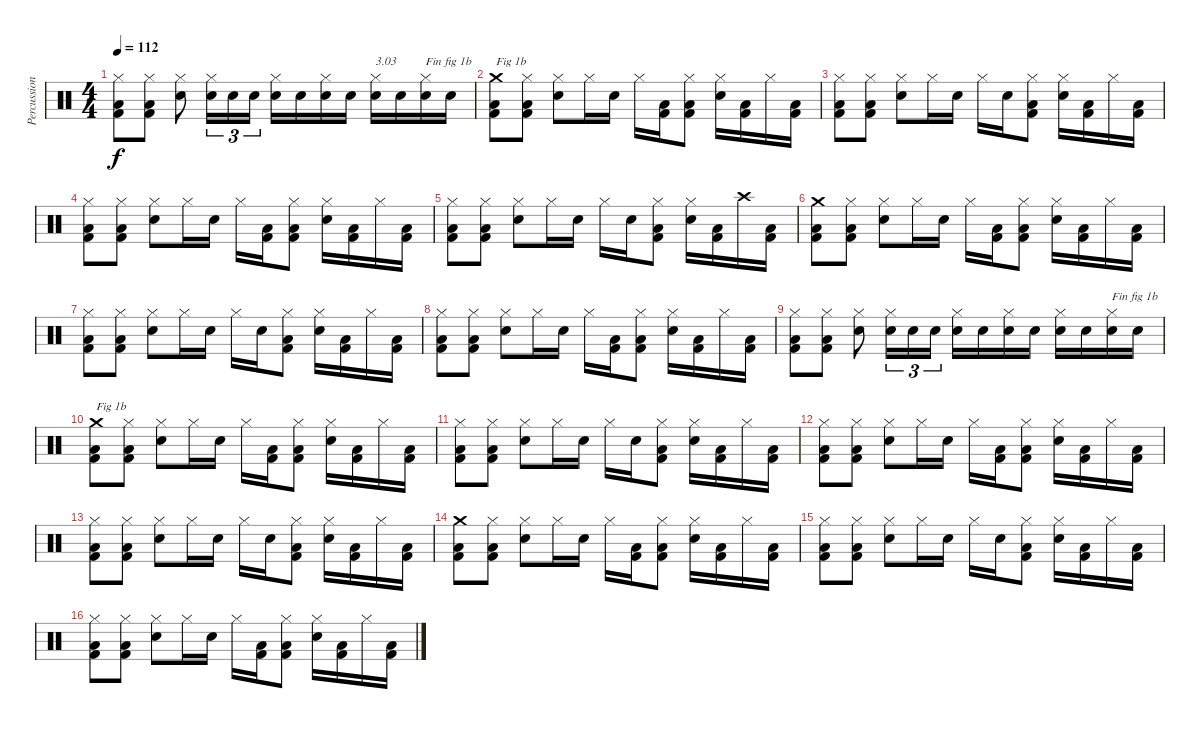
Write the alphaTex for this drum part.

\track ("Percussions" "Percussion") {instrument percussion}
\staff {score}
\articulation defaults
\ts (4 4)
\tempo 112
\clef neutral
\ks c
("Kick (hit) 2" "Low Floor Tom (hit)" "Hi-Hat (closed)").8{dy f} ("Kick (hit) 2" "Low Floor Tom (hit)" "Hi-Hat (closed)").8 ("Snare (hit) 2" "Hi-Hat (closed)").8 ("Snare (hit) 2" "Hi-Hat (closed)").16{tu (3 2)} "Snare (hit) 2".16{tu (3 2)} "Snare (hit) 2".16{tu (3 2)} ("Snare (hit) 2" "Hi-Hat (closed)").16 "Snare (hit) 2".16 ("Snare (hit) 2" "Hi-Hat (closed)").16 "Snare (hit) 2".16 ("Snare (hit) 2" "Hi-Hat (closed)").16{txt "3.03"} "Snare (hit) 2".16 ("Snare (hit) 2" "Hi-Hat (closed)").16{txt "Fin fig 1b"} "Snare (hit) 2".16 |
("Kick (hit) 2" "Low Floor Tom (hit)" "Crash medium (hit)").8{txt "Fig 1b"} ("Kick (hit) 2" "Low Floor Tom (hit)" "Hi-Hat (closed)").8 ("Snare (hit) 2" "Hi-Hat (closed)").8 "Hi-Hat (closed)".16 "Snare (hit) 2".16 "Hi-Hat (closed)".16 ("Kick (hit) 2" "Low Floor Tom (hit)").16 ("Kick (hit) 2" "Low Floor Tom (hit)" "Hi-Hat (closed)").8 ("Snare (hit) 2" "Hi-Hat (closed)").16 ("Kick (hit) 2" "Low Floor Tom (hit)").16 "Hi-Hat (closed)".16 ("Kick (hit) 2" "Low Floor Tom (hit)").16 |
("Kick (hit) 2" "Low Floor Tom (hit)" "Hi-Hat (closed)").8 ("Kick (hit) 2" "Low Floor Tom (hit)" "Hi-Hat (closed)").8 ("Snare (hit) 2" "Hi-Hat (closed)").8 "Hi-Hat (closed)".16 "Snare (hit) 2".16 "Hi-Hat (closed)".16 "Snare (hit) 2".16 ("Kick (hit) 2" "Low Floor Tom (hit)" "Hi-Hat (closed)").8 ("Snare (hit) 2" "Hi-Hat (closed)").16 ("Kick (hit) 2" "Low Floor Tom (hit)").16 "Hi-Hat (closed)".16 ("Kick (hit) 2" "Low Floor Tom (hit)").16 |
("Kick (hit) 2" "Low Floor Tom (hit)" "Hi-Hat (closed)").8 ("Kick (hit) 2" "Low Floor Tom (hit)" "Hi-Hat (closed)").8 ("Snare (hit) 2" "Hi-Hat (closed)").8 "Hi-Hat (closed)".16 "Snare (hit) 2".16 "Hi-Hat (closed)".16 ("Kick (hit) 2" "Low Floor Tom (hit)").16 ("Kick (hit) 2" "Low Floor Tom (hit)" "Hi-Hat (closed)").8 ("Snare (hit) 2" "Hi-Hat (closed)").16 ("Kick (hit) 2" "Low Floor Tom (hit)").16 "Hi-Hat (closed)".16 ("Kick (hit) 2" "Low Floor Tom (hit)").16 |
("Kick (hit) 2" "Low Floor Tom (hit)" "Hi-Hat (closed)").8 ("Kick (hit) 2" "Low Floor Tom (hit)" "Hi-Hat (closed)").8 ("Snare (hit) 2" "Hi-Hat (closed)").8 "Hi-Hat (closed)".16 "Snare (hit) 2".16 "Hi-Hat (closed)".16 "Snare (hit) 2".16 ("Kick (hit) 2" "Low Floor Tom (hit)" "Hi-Hat (closed)").8 ("Snare (hit) 2" "Hi-Hat (closed)").16 ("Kick (hit) 2" "Low Floor Tom (hit)").16 "Crash high (hit)".16 ("Kick (hit) 2" "Low Floor Tom (hit)").16 |
("Kick (hit) 2" "Low Floor Tom (hit)" "Crash medium (hit)").8 ("Kick (hit) 2" "Low Floor Tom (hit)" "Hi-Hat (closed)").8 ("Snare (hit) 2" "Hi-Hat (closed)").8 "Hi-Hat (closed)".16 "Snare (hit) 2".16 "Hi-Hat (closed)".16 ("Kick (hit) 2" "Low Floor Tom (hit)").16 ("Kick (hit) 2" "Low Floor Tom (hit)" "Hi-Hat (closed)").8 ("Snare (hit) 2" "Hi-Hat (closed)").16 ("Kick (hit) 2" "Low Floor Tom (hit)").16 "Hi-Hat (closed)".16 ("Kick (hit) 2" "Low Floor Tom (hit)").16 |
("Kick (hit) 2" "Low Floor Tom (hit)" "Hi-Hat (closed)").8 ("Kick (hit) 2" "Low Floor Tom (hit)" "Hi-Hat (closed)").8 ("Snare (hit) 2" "Hi-Hat (closed)").8 "Hi-Hat (closed)".16 "Snare (hit) 2".16 "Hi-Hat (closed)".16 "Snare (hit) 2".16 ("Kick (hit) 2" "Low Floor Tom (hit)" "Hi-Hat (closed)").8 ("Snare (hit) 2" "Hi-Hat (closed)").16 ("Kick (hit) 2" "Low Floor Tom (hit)").16 "Hi-Hat (closed)".16 ("Kick (hit) 2" "Low Floor Tom (hit)").16 |
("Kick (hit) 2" "Low Floor Tom (hit)" "Hi-Hat (closed)").8 ("Kick (hit) 2" "Low Floor Tom (hit)" "Hi-Hat (closed)").8 ("Snare (hit) 2" "Hi-Hat (closed)").8 "Hi-Hat (closed)".16 "Snare (hit) 2".16 "Hi-Hat (closed)".16 ("Kick (hit) 2" "Low Floor Tom (hit)").16 ("Kick (hit) 2" "Low Floor Tom (hit)" "Hi-Hat (closed)").8 ("Snare (hit) 2" "Hi-Hat (closed)").16 ("Kick (hit) 2" "Low Floor Tom (hit)").16 "Hi-Hat (closed)".16 ("Kick (hit) 2" "Low Floor Tom (hit)").16 |
("Kick (hit) 2" "Low Floor Tom (hit)" "Hi-Hat (closed)").8 ("Kick (hit) 2" "Low Floor Tom (hit)" "Hi-Hat (closed)").8 ("Snare (hit) 2" "Hi-Hat (closed)").8 ("Snare (hit) 2" "Hi-Hat (closed)").16{tu (3 2)} "Snare (hit) 2".16{tu (3 2)} "Snare (hit) 2".16{tu (3 2)} ("Snare (hit) 2" "Hi-Hat (closed)").16 "Snare (hit) 2".16 ("Snare (hit) 2" "Hi-Hat (closed)").16 "Snare (hit) 2".16 ("Snare (hit) 2" "Hi-Hat (closed)").16 "Snare (hit) 2".16 ("Snare (hit) 2" "Hi-Hat (closed)").16{txt "Fin fig 1b"} "Snare (hit) 2".16 |
("Kick (hit) 2" "Low Floor Tom (hit)" "Crash medium (hit)").8{txt "Fig 1b"} ("Kick (hit) 2" "Low Floor Tom (hit)" "Hi-Hat (closed)").8 ("Snare (hit) 2" "Hi-Hat (closed)").8 "Hi-Hat (closed)".16 "Snare (hit) 2".16 "Hi-Hat (closed)".16 ("Kick (hit) 2" "Low Floor Tom (hit)").16 ("Kick (hit) 2" "Low Floor Tom (hit)" "Hi-Hat (closed)").8 ("Snare (hit) 2" "Hi-Hat (closed)").16 ("Kick (hit) 2" "Low Floor Tom (hit)").16 "Hi-Hat (closed)".16 ("Kick (hit) 2" "Low Floor Tom (hit)").16 |
("Kick (hit) 2" "Low Floor Tom (hit)" "Hi-Hat (closed)").8 ("Kick (hit) 2" "Low Floor Tom (hit)" "Hi-Hat (closed)").8 ("Snare (hit) 2" "Hi-Hat (closed)").8 "Hi-Hat (closed)".16 "Snare (hit) 2".16 "Hi-Hat (closed)".16 "Snare (hit) 2".16 ("Kick (hit) 2" "Low Floor Tom (hit)" "Hi-Hat (closed)").8 ("Snare (hit) 2" "Hi-Hat (closed)").16 ("Kick (hit) 2" "Low Floor Tom (hit)").16 "Hi-Hat (closed)".16 ("Kick (hit) 2" "Low Floor Tom (hit)").16 |
("Kick (hit) 2" "Low Floor Tom (hit)" "Hi-Hat (closed)").8 ("Kick (hit) 2" "Low Floor Tom (hit)" "Hi-Hat (closed)").8 ("Snare (hit) 2" "Hi-Hat (closed)").8 "Hi-Hat (closed)".16 "Snare (hit) 2".16 "Hi-Hat (closed)".16 ("Kick (hit) 2" "Low Floor Tom (hit)").16 ("Kick (hit) 2" "Low Floor Tom (hit)" "Hi-Hat (closed)").8 ("Snare (hit) 2" "Hi-Hat (closed)").16 ("Kick (hit) 2" "Low Floor Tom (hit)").16 "Hi-Hat (closed)".16 ("Kick (hit) 2" "Low Floor Tom (hit)").16 |
("Kick (hit) 2" "Low Floor Tom (hit)" "Hi-Hat (closed)").8 ("Kick (hit) 2" "Low Floor Tom (hit)" "Hi-Hat (closed)").8 ("Snare (hit) 2" "Hi-Hat (closed)").8 "Hi-Hat (closed)".16 "Snare (hit) 2".16 "Hi-Hat (closed)".16 "Snare (hit) 2".16 ("Kick (hit) 2" "Low Floor Tom (hit)" "Hi-Hat (closed)").8 ("Snare (hit) 2" "Hi-Hat (closed)").16 ("Kick (hit) 2" "Low Floor Tom (hit)").16 "Hi-Hat (closed)".16 ("Kick (hit) 2" "Low Floor Tom (hit)").16 |
("Kick (hit) 2" "Low Floor Tom (hit)" "Crash medium (hit)").8 ("Kick (hit) 2" "Low Floor Tom (hit)" "Hi-Hat (closed)").8 ("Snare (hit) 2" "Hi-Hat (closed)").8 "Hi-Hat (closed)".16 "Snare (hit) 2".16 "Hi-Hat (closed)".16 ("Kick (hit) 2" "Low Floor Tom (hit)").16 ("Kick (hit) 2" "Low Floor Tom (hit)" "Hi-Hat (closed)").8 ("Snare (hit) 2" "Hi-Hat (closed)").16 ("Kick (hit) 2" "Low Floor Tom (hit)").16 "Hi-Hat (closed)".16 ("Kick (hit) 2" "Low Floor Tom (hit)").16 |
("Kick (hit) 2" "Low Floor Tom (hit)" "Hi-Hat (closed)").8 ("Kick (hit) 2" "Low Floor Tom (hit)" "Hi-Hat (closed)").8 ("Snare (hit) 2" "Hi-Hat (closed)").8 "Hi-Hat (closed)".16 "Snare (hit) 2".16 "Hi-Hat (closed)".16 "Snare (hit) 2".16 ("Kick (hit) 2" "Low Floor Tom (hit)" "Hi-Hat (closed)").8 ("Snare (hit) 2" "Hi-Hat (closed)").16 ("Kick (hit) 2" "Low Floor Tom (hit)").16 "Hi-Hat (closed)".16 ("Kick (hit) 2" "Low Floor Tom (hit)").16 |
("Kick (hit) 2" "Low Floor Tom (hit)" "Hi-Hat (closed)").8 ("Kick (hit) 2" "Low Floor Tom (hit)" "Hi-Hat (closed)").8 ("Snare (hit) 2" "Hi-Hat (closed)").8 "Hi-Hat (closed)".16 "Snare (hit) 2".16 "Hi-Hat (closed)".16 ("Kick (hit) 2" "Low Floor Tom (hit)").16 ("Kick (hit) 2" "Low Floor Tom (hit)" "Hi-Hat (closed)").8 ("Snare (hit) 2" "Hi-Hat (closed)").16 ("Kick (hit) 2" "Low Floor Tom (hit)").16 "Hi-Hat (closed)".16 ("Kick (hit) 2" "Low Floor Tom (hit)").16
